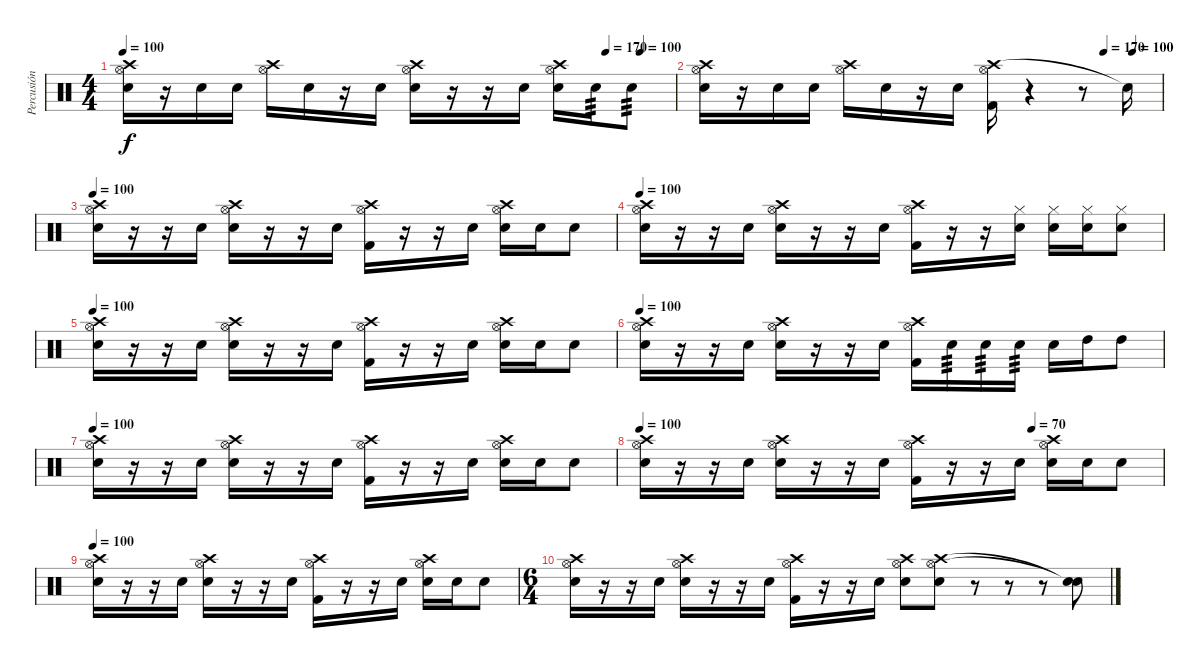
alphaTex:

\track ("Percusión" "Percusión") {instrument percussion}
\staff {score}
\articulation defaults
\ts (4 4)
\tempo 100
\tempo (170 0.875)
\tempo (100 0.9375)
\clef neutral
\ks c
("Crash high (hit)" "Hi-Hat (open)" "Snare (hit) 2").16{dy f} r.16 "Electric Snare (hit)".16 "Snare (hit) 2".16 ("Hi-Hat (open)" "Crash high (hit)").16 "Electric Snare (hit)".16 r.16 "Snare (hit) 2".16 ("Crash high (hit)" "Hi-Hat (open)" "Electric Snare (hit)").16 r.16 r.16 "Electric Snare (hit)".16 ("Crash high (hit)" "Hi-Hat (open)" "Electric Snare (hit)").16 "Electric Snare (hit)".16{tp 3} "Electric Snare (hit)".8{tp 3} |
\tempo (170 0.875)
\tempo (100 0.9375)
("Crash high (hit)" "Hi-Hat (open)" "Snare (hit) 2").16 r.16 "Electric Snare (hit)".16 "Snare (hit) 2".16 ("Crash high (hit)" "Hi-Hat (open)").16 "Electric Snare (hit)".16 r.16 "Snare (hit) 2".16 ("Crash high (hit)" "Hi-Hat (open)" "Kick (hit) 2").16 r.4 r.8 "Snare (hit)"{t}.16 |
\tempo 100
("Crash high (hit)" "Hi-Hat (open)" "Snare (hit) 2").16 r.16 r.16 "Snare (hit) 2".16 ("Crash high (hit)" "Hi-Hat (open)" "Electric Snare (hit)").16 r.16 r.16 "Snare (hit) 2".16 ("Crash high (hit)" "Hi-Hat (open)" "Kick (hit) 2").16 r.16 r.16 "Snare (hit) 2".16 ("Crash high (hit)" "Hi-Hat (open)" "Electric Snare (hit)").16 "Electric Snare (hit)".16 "Electric Snare (hit)".8 |
\tempo 100
("Crash high (hit)" "Hi-Hat (open)" "Snare (hit) 2").16 r.16 r.16 "Snare (hit) 2".16 ("Crash high (hit)" "Hi-Hat (open)" "Electric Snare (hit)").16 r.16 r.16 "Snare (hit) 2".16 ("Crash high (hit)" "Hi-Hat (open)" "Kick (hit) 2").16 r.16 r.16 ("Hi-Hat (closed)" "Electric Snare (hit)").16 ("Hi-Hat (closed)" "Electric Snare (hit)").16 ("Hi-Hat (closed)" "Electric Snare (hit)").16 ("Hi-Hat (closed)" "Electric Snare (hit)").8 |
\tempo 100
("Crash high (hit)" "Hi-Hat (open)" "Snare (hit) 2").16 r.16 r.16 "Snare (hit) 2".16 ("Crash high (hit)" "Hi-Hat (open)" "Electric Snare (hit)").16 r.16 r.16 "Snare (hit) 2".16 ("Crash high (hit)" "Hi-Hat (open)" "Kick (hit) 2").16 r.16 r.16 "Snare (hit) 2".16 ("Crash high (hit)" "Hi-Hat (open)" "Electric Snare (hit)").16 "Electric Snare (hit)".16 "Electric Snare (hit)".8 |
\tempo 100
("Crash high (hit)" "Hi-Hat (open)" "Snare (hit) 2").16 r.16 r.16 "Snare (hit) 2".16 ("Crash high (hit)" "Hi-Hat (open)" "Electric Snare (hit)").16 r.16 r.16 "Snare (hit) 2".16 ("Crash high (hit)" "Hi-Hat (open)" "Kick (hit) 2").16 "Electric Snare (hit)".16{tp 3} "Electric Snare (hit)".16{tp 3} "Electric Snare (hit)".16{tp 3} "Electric Snare (hit)".16 "High Tom (hit)".16 "High Tom (hit)".8 |
\tempo 100
("Crash high (hit)" "Hi-Hat (open)" "Snare (hit) 2").16 r.16 r.16 "Snare (hit) 2".16 ("Crash high (hit)" "Hi-Hat (open)" "Electric Snare (hit)").16 r.16 r.16 "Snare (hit) 2".16 ("Crash high (hit)" "Hi-Hat (open)" "Kick (hit) 2").16 r.16 r.16 "Snare (hit) 2".16 ("Crash high (hit)" "Hi-Hat (open)" "Electric Snare (hit)").16 "Electric Snare (hit)".16 "Electric Snare (hit)".8 |
\tempo 100
\tempo (70 0.75)
("Crash high (hit)" "Hi-Hat (open)" "Snare (hit) 2").16 r.16 r.16 "Snare (hit) 2".16 ("Crash high (hit)" "Hi-Hat (open)" "Electric Snare (hit)").16 r.16 r.16 "Snare (hit) 2".16 ("Crash high (hit)" "Hi-Hat (open)" "Kick (hit) 2").16 r.16 r.16 "Snare (hit) 2".16 ("Crash high (hit)" "Hi-Hat (open)" "Electric Snare (hit)").16 "Electric Snare (hit)".16 "Electric Snare (hit)".8 |
\tempo 100
("Crash high (hit)" "Hi-Hat (open)" "Snare (hit) 2").16 r.16 r.16 "Snare (hit) 2".16 ("Crash high (hit)" "Hi-Hat (open)" "Electric Snare (hit)").16 r.16 r.16 "Snare (hit) 2".16 ("Crash high (hit)" "Hi-Hat (open)" "Kick (hit) 2").16 r.16 r.16 "Snare (hit) 2".16 ("Crash high (hit)" "Hi-Hat (open)" "Electric Snare (hit)").16 "Electric Snare (hit)".16 "Electric Snare (hit)".8 |
\ts (6 4)
("Crash high (hit)" "Hi-Hat (open)" "Snare (hit) 2").16 r.16 r.16 "Snare (hit) 2".16 ("Crash high (hit)" "Hi-Hat (open)" "Electric Snare (hit)").16 r.16 r.16 "Snare (hit) 2".16 ("Crash high (hit)" "Hi-Hat (open)" "Kick (hit) 2").16 r.16 r.16 "Snare (hit) 2".16 ("Crash high (hit)" "Hi-Hat (open)" "Electric Snare (hit)").8 ("Crash high (hit)" "Hi-Hat (open)" "Electric Snare (hit)").8 r.8 r.8 r.8 ("Snare (hit)"{t} "Snare (hit)"{t}).8
